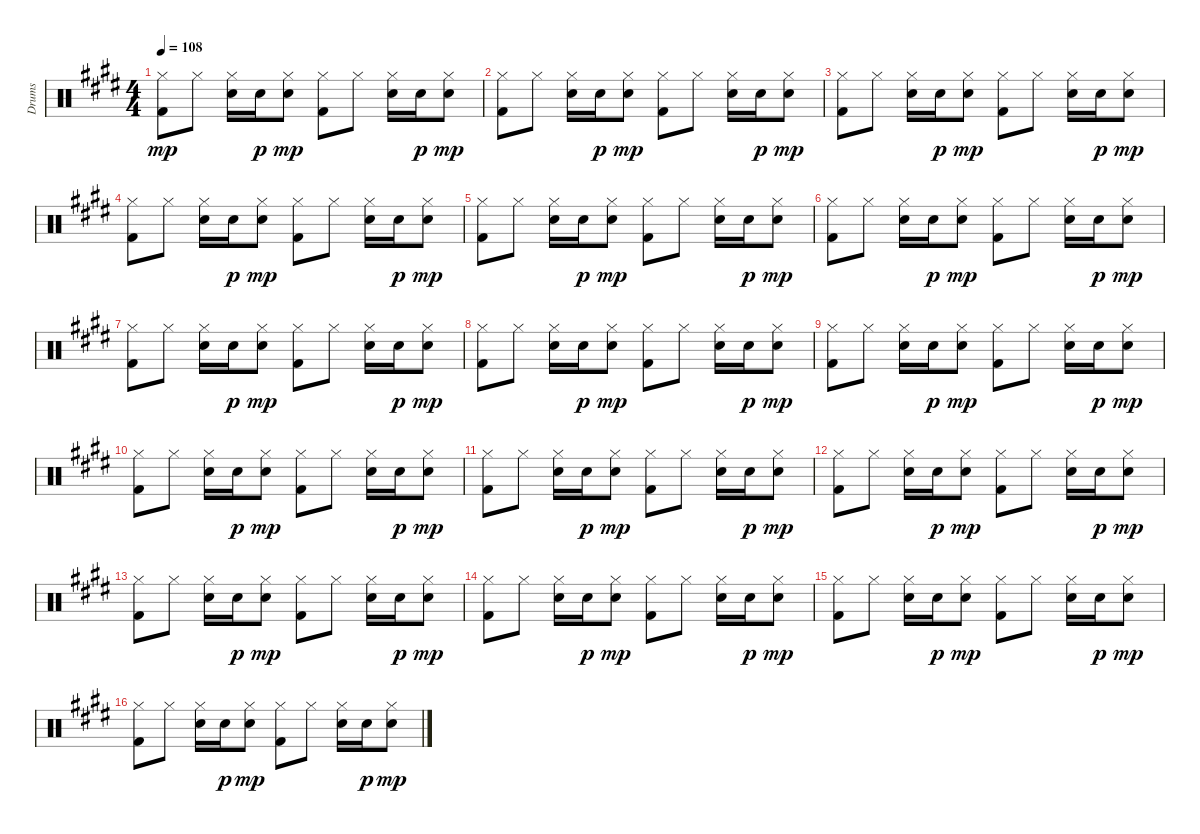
\track ("Drums" "Drums") {instrument percussion bank 7}
\staff {score}
\articulation defaults
\ts (4 4)
\tempo 108
\clef neutral
\ks e
("Hi-Hat (closed)" "Kick (hit) 2").8{dy mp} "Hi-Hat (closed)".8 ("Electric Snare (hit)" "Hi-Hat (closed)").16 "Electric Snare (hit)".16{dy p} ("Electric Snare (hit)" "Hi-Hat (closed)").8{dy mp} ("Hi-Hat (closed)" "Kick (hit) 2").8 "Hi-Hat (closed)".8 ("Electric Snare (hit)" "Hi-Hat (closed)").16 "Electric Snare (hit)".16{dy p} ("Electric Snare (hit)" "Hi-Hat (closed)").8{dy mp} |
("Hi-Hat (closed)" "Kick (hit) 2").8 "Hi-Hat (closed)".8 ("Electric Snare (hit)" "Hi-Hat (closed)").16 "Electric Snare (hit)".16{dy p} ("Electric Snare (hit)" "Hi-Hat (closed)").8{dy mp} ("Hi-Hat (closed)" "Kick (hit) 2").8 "Hi-Hat (closed)".8 ("Electric Snare (hit)" "Hi-Hat (closed)").16 "Electric Snare (hit)".16{dy p} ("Electric Snare (hit)" "Hi-Hat (closed)").8{dy mp} |
("Hi-Hat (closed)" "Kick (hit) 2").8 "Hi-Hat (closed)".8 ("Electric Snare (hit)" "Hi-Hat (closed)").16 "Electric Snare (hit)".16{dy p} ("Electric Snare (hit)" "Hi-Hat (closed)").8{dy mp} ("Hi-Hat (closed)" "Kick (hit) 2").8 "Hi-Hat (closed)".8 ("Electric Snare (hit)" "Hi-Hat (closed)").16 "Electric Snare (hit)".16{dy p} ("Electric Snare (hit)" "Hi-Hat (closed)").8{dy mp} |
("Hi-Hat (closed)" "Kick (hit) 2").8 "Hi-Hat (closed)".8 ("Electric Snare (hit)" "Hi-Hat (closed)").16 "Electric Snare (hit)".16{dy p} ("Electric Snare (hit)" "Hi-Hat (closed)").8{dy mp} ("Hi-Hat (closed)" "Kick (hit) 2").8 "Hi-Hat (closed)".8 ("Electric Snare (hit)" "Hi-Hat (closed)").16 "Electric Snare (hit)".16{dy p} ("Electric Snare (hit)" "Hi-Hat (closed)").8{dy mp} |
("Hi-Hat (closed)" "Kick (hit) 2").8 "Hi-Hat (closed)".8 ("Electric Snare (hit)" "Hi-Hat (closed)").16 "Electric Snare (hit)".16{dy p} ("Electric Snare (hit)" "Hi-Hat (closed)").8{dy mp} ("Hi-Hat (closed)" "Kick (hit) 2").8 "Hi-Hat (closed)".8 ("Electric Snare (hit)" "Hi-Hat (closed)").16 "Electric Snare (hit)".16{dy p} ("Electric Snare (hit)" "Hi-Hat (closed)").8{dy mp} |
("Hi-Hat (closed)" "Kick (hit) 2").8 "Hi-Hat (closed)".8 ("Electric Snare (hit)" "Hi-Hat (closed)").16 "Electric Snare (hit)".16{dy p} ("Electric Snare (hit)" "Hi-Hat (closed)").8{dy mp} ("Hi-Hat (closed)" "Kick (hit) 2").8 "Hi-Hat (closed)".8 ("Electric Snare (hit)" "Hi-Hat (closed)").16 "Electric Snare (hit)".16{dy p} ("Electric Snare (hit)" "Hi-Hat (closed)").8{dy mp} |
("Hi-Hat (closed)" "Kick (hit) 2").8 "Hi-Hat (closed)".8 ("Electric Snare (hit)" "Hi-Hat (closed)").16 "Electric Snare (hit)".16{dy p} ("Electric Snare (hit)" "Hi-Hat (closed)").8{dy mp} ("Hi-Hat (closed)" "Kick (hit) 2").8 "Hi-Hat (closed)".8 ("Electric Snare (hit)" "Hi-Hat (closed)").16 "Electric Snare (hit)".16{dy p} ("Electric Snare (hit)" "Hi-Hat (closed)").8{dy mp} |
("Hi-Hat (closed)" "Kick (hit) 2").8 "Hi-Hat (closed)".8 ("Electric Snare (hit)" "Hi-Hat (closed)").16 "Electric Snare (hit)".16{dy p} ("Electric Snare (hit)" "Hi-Hat (closed)").8{dy mp} ("Hi-Hat (closed)" "Kick (hit) 2").8 "Hi-Hat (closed)".8 ("Electric Snare (hit)" "Hi-Hat (closed)").16 "Electric Snare (hit)".16{dy p} ("Electric Snare (hit)" "Hi-Hat (closed)").8{dy mp} |
("Hi-Hat (closed)" "Kick (hit) 2").8 "Hi-Hat (closed)".8 ("Electric Snare (hit)" "Hi-Hat (closed)").16 "Electric Snare (hit)".16{dy p} ("Electric Snare (hit)" "Hi-Hat (closed)").8{dy mp} ("Hi-Hat (closed)" "Kick (hit) 2").8 "Hi-Hat (closed)".8 ("Electric Snare (hit)" "Hi-Hat (closed)").16 "Electric Snare (hit)".16{dy p} ("Electric Snare (hit)" "Hi-Hat (closed)").8{dy mp} |
("Hi-Hat (closed)" "Kick (hit) 2").8 "Hi-Hat (closed)".8 ("Electric Snare (hit)" "Hi-Hat (closed)").16 "Electric Snare (hit)".16{dy p} ("Electric Snare (hit)" "Hi-Hat (closed)").8{dy mp} ("Hi-Hat (closed)" "Kick (hit) 2").8 "Hi-Hat (closed)".8 ("Electric Snare (hit)" "Hi-Hat (closed)").16 "Electric Snare (hit)".16{dy p} ("Electric Snare (hit)" "Hi-Hat (closed)").8{dy mp} |
("Hi-Hat (closed)" "Kick (hit) 2").8 "Hi-Hat (closed)".8 ("Electric Snare (hit)" "Hi-Hat (closed)").16 "Electric Snare (hit)".16{dy p} ("Electric Snare (hit)" "Hi-Hat (closed)").8{dy mp} ("Hi-Hat (closed)" "Kick (hit) 2").8 "Hi-Hat (closed)".8 ("Electric Snare (hit)" "Hi-Hat (closed)").16 "Electric Snare (hit)".16{dy p} ("Electric Snare (hit)" "Hi-Hat (closed)").8{dy mp} |
("Hi-Hat (closed)" "Kick (hit) 2").8 "Hi-Hat (closed)".8 ("Electric Snare (hit)" "Hi-Hat (closed)").16 "Electric Snare (hit)".16{dy p} ("Electric Snare (hit)" "Hi-Hat (closed)").8{dy mp} ("Hi-Hat (closed)" "Kick (hit) 2").8 "Hi-Hat (closed)".8 ("Electric Snare (hit)" "Hi-Hat (closed)").16 "Electric Snare (hit)".16{dy p} ("Electric Snare (hit)" "Hi-Hat (closed)").8{dy mp} |
("Hi-Hat (closed)" "Kick (hit) 2").8 "Hi-Hat (closed)".8 ("Electric Snare (hit)" "Hi-Hat (closed)").16 "Electric Snare (hit)".16{dy p} ("Electric Snare (hit)" "Hi-Hat (closed)").8{dy mp} ("Hi-Hat (closed)" "Kick (hit) 2").8 "Hi-Hat (closed)".8 ("Electric Snare (hit)" "Hi-Hat (closed)").16 "Electric Snare (hit)".16{dy p} ("Electric Snare (hit)" "Hi-Hat (closed)").8{dy mp} |
("Hi-Hat (closed)" "Kick (hit) 2").8 "Hi-Hat (closed)".8 ("Electric Snare (hit)" "Hi-Hat (closed)").16 "Electric Snare (hit)".16{dy p} ("Electric Snare (hit)" "Hi-Hat (closed)").8{dy mp} ("Hi-Hat (closed)" "Kick (hit) 2").8 "Hi-Hat (closed)".8 ("Electric Snare (hit)" "Hi-Hat (closed)").16 "Electric Snare (hit)".16{dy p} ("Electric Snare (hit)" "Hi-Hat (closed)").8{dy mp} |
("Hi-Hat (closed)" "Kick (hit) 2").8 "Hi-Hat (closed)".8 ("Electric Snare (hit)" "Hi-Hat (closed)").16 "Electric Snare (hit)".16{dy p} ("Electric Snare (hit)" "Hi-Hat (closed)").8{dy mp} ("Hi-Hat (closed)" "Kick (hit) 2").8 "Hi-Hat (closed)".8 ("Electric Snare (hit)" "Hi-Hat (closed)").16 "Electric Snare (hit)".16{dy p} ("Electric Snare (hit)" "Hi-Hat (closed)").8{dy mp} |
("Hi-Hat (closed)" "Kick (hit) 2").8 "Hi-Hat (closed)".8 ("Electric Snare (hit)" "Hi-Hat (closed)").16 "Electric Snare (hit)".16{dy p} ("Electric Snare (hit)" "Hi-Hat (closed)").8{dy mp} ("Hi-Hat (closed)" "Kick (hit) 2").8 "Hi-Hat (closed)".8 ("Electric Snare (hit)" "Hi-Hat (closed)").16 "Electric Snare (hit)".16{dy p} ("Electric Snare (hit)" "Hi-Hat (closed)").8{dy mp}
